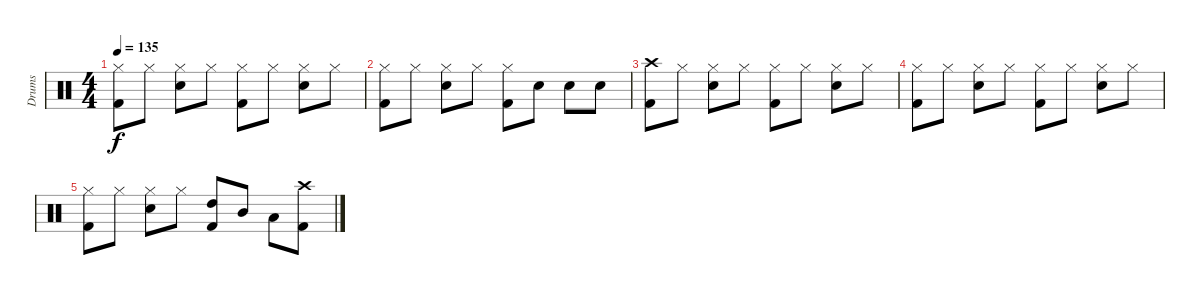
\track ("Drums" "Drums") {instrument percussion}
\staff {score}
\articulation defaults
\ts (4 4)
\tempo 135
\clef neutral
\ks c
("Hi-Hat (closed)" "Kick (hit) 2").8{dy f} "Hi-Hat (closed)".8 ("Hi-Hat (closed)" "Snare (hit) 2").8 "Hi-Hat (closed)".8 ("Hi-Hat (closed)" "Kick (hit) 2").8 "Hi-Hat (closed)".8 ("Hi-Hat (closed)" "Snare (hit) 2").8 "Hi-Hat (closed)".8 |
("Hi-Hat (closed)" "Kick (hit) 2").8 "Hi-Hat (closed)".8 ("Hi-Hat (closed)" "Snare (hit) 2").8 "Hi-Hat (closed)".8 ("Hi-Hat (closed)" "Kick (hit) 2").8 "Snare (hit) 2".8 "Snare (hit) 2".8 "Snare (hit) 2".8 |
("Crash high (hit)" "Kick (hit) 2").8 "Hi-Hat (closed)".8 ("Hi-Hat (closed)" "Snare (hit) 2").8 "Hi-Hat (closed)".8 ("Hi-Hat (closed)" "Kick (hit) 2").8 "Hi-Hat (closed)".8 ("Hi-Hat (closed)" "Snare (hit) 2").8 "Hi-Hat (closed)".8 |
("Hi-Hat (closed)" "Kick (hit) 2").8 "Hi-Hat (closed)".8 ("Hi-Hat (closed)" "Snare (hit) 2").8 "Hi-Hat (closed)".8 ("Hi-Hat (closed)" "Kick (hit) 2").8 "Hi-Hat (closed)".8 ("Hi-Hat (closed)" "Snare (hit) 2").8 "Hi-Hat (closed)".8 |
("Hi-Hat (closed)" "Kick (hit) 2").8 "Hi-Hat (closed)".8 ("Hi-Hat (closed)" "Snare (hit) 2").8 "Hi-Hat (closed)".8 ("High Tom (hit)" "Kick (hit) 2").8 "Mid Tom (hit)".8 "Low Tom (hit)".8 ("Crash high (hit)" "Kick (hit) 2").8
